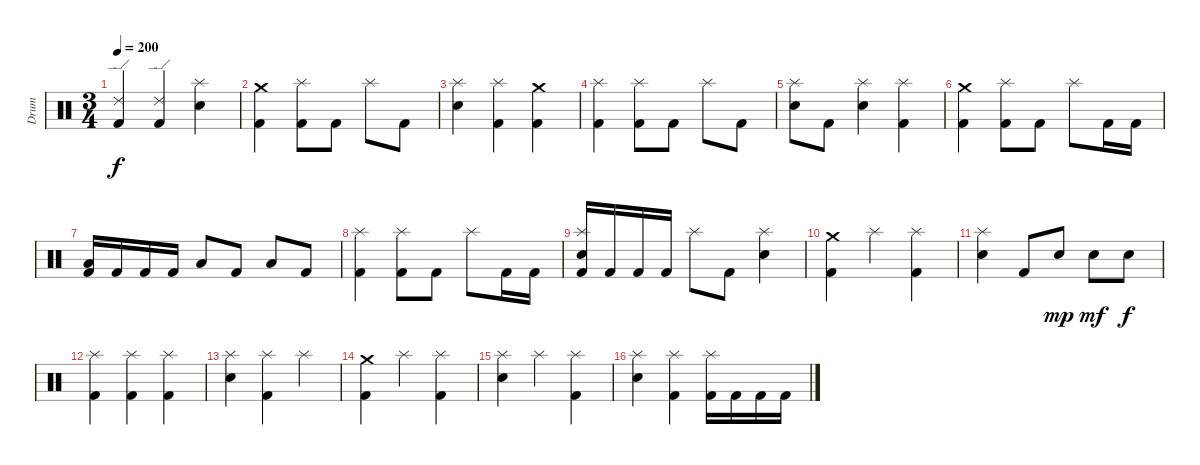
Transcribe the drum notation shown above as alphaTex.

\track ("Drum" "Drum") {instrument percussion}
\staff {score}
\articulation defaults
\ts (3 4)
\tempo 200
\clef neutral
\ks c
("Ride (edge) 2" "Kick (hit) 2").4{dy f} ("Ride (edge) 2" "Kick (hit) 2").4 ("Splash (hit)" "Electric Snare (hit)").4 |
("Crash medium (hit)" "Kick (hit) 2").4 ("Splash (hit)" "Kick (hit) 2").8 "Kick (hit) 2".8 "Splash (hit)".8 "Kick (hit) 2".8 |
("Splash (hit)" "Electric Snare (hit)").4 ("Splash (hit)" "Kick (hit) 2").4 ("Crash medium (hit)" "Kick (hit) 2").4 |
("Splash (hit)" "Kick (hit) 2").4 ("Splash (hit)" "Kick (hit) 2").8 "Kick (hit) 2".8 "Splash (hit)".8 "Kick (hit) 2".8 |
("Splash (hit)" "Electric Snare (hit)").8 "Kick (hit) 2".8 ("Splash (hit)" "Electric Snare (hit)").4 ("Splash (hit)" "Kick (hit) 2").4 |
("Crash medium (hit)" "Kick (hit) 2").4 ("Splash (hit)" "Kick (hit) 2").8 "Kick (hit) 2".8 "Splash (hit)".8 "Kick (hit) 2".16 "Kick (hit) 2".16 |
("Low Tom (hit)" "Kick (hit) 2").16 "Kick (hit) 2".16 "Kick (hit) 2".16 "Kick (hit) 2".16 "Low Tom (hit)".8 "Kick (hit) 2".8 "Low Tom (hit)".8 "Kick (hit) 2".8 |
("Splash (hit)" "Kick (hit) 2").4 ("Splash (hit)" "Kick (hit) 2").8 "Kick (hit) 2".8 "Splash (hit)".8 "Kick (hit) 2".16 "Kick (hit) 2".16 |
("Splash (hit)" "Electric Snare (hit)" "Kick (hit) 2").16 "Kick (hit) 2".16 "Kick (hit) 2".16 "Kick (hit) 2".16 "Splash (hit)".8 "Kick (hit) 2".8 ("Splash (hit)" "Electric Snare (hit)").4 |
("Crash medium (hit)" "Kick (hit) 2").4 "Splash (hit)".4 ("Splash (hit)" "Kick (hit) 2").4 |
("Splash (hit)" "Electric Snare (hit)").4 "Kick (hit) 2".8 "Electric Snare (hit)".8{dy mp} "Electric Snare (hit)".8{dy mf} "Electric Snare (hit)".8{dy f} |
("Splash (hit)" "Kick (hit) 2").4 ("Splash (hit)" "Kick (hit) 2").4 ("Splash (hit)" "Kick (hit) 2").4 |
("Splash (hit)" "Electric Snare (hit)").4 ("Splash (hit)" "Kick (hit) 2").4 "Splash (hit)".4 |
("Crash medium (hit)" "Kick (hit) 2").4 "Splash (hit)".4 ("Splash (hit)" "Kick (hit) 2").4 |
("Splash (hit)" "Electric Snare (hit)").4 "Splash (hit)".4 ("Splash (hit)" "Kick (hit) 2").4 |
("Splash (hit)" "Electric Snare (hit)").4 ("Splash (hit)" "Kick (hit) 2").4 ("Splash (hit)" "Kick (hit) 2").16 "Kick (hit) 2".16 "Kick (hit) 2".16 "Kick (hit) 2".16
